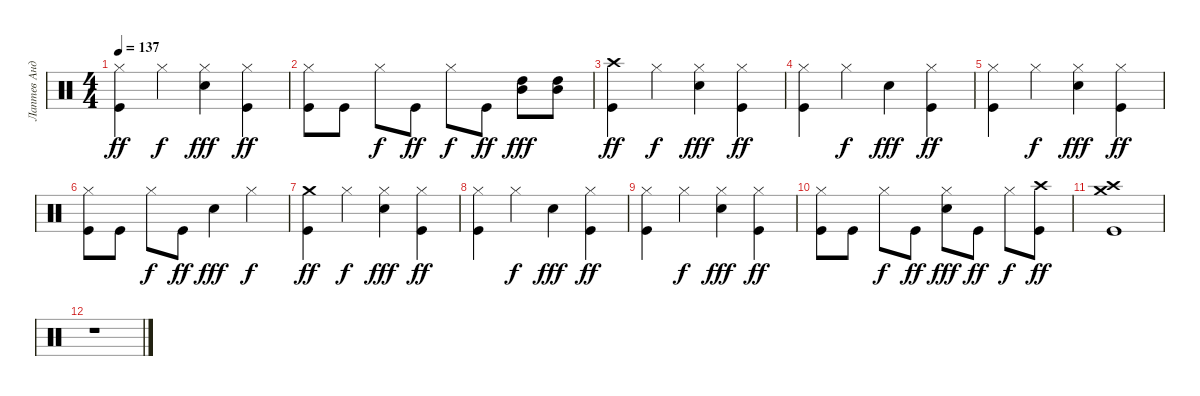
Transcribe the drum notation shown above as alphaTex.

\track ("Лаптев Андрей" "Лаптев Анд") {instrument percussion}
\staff {score}
\articulation defaults
\ts (4 4)
\tempo 137
\clef neutral
\ks c
("Hi-Hat (closed)" "Kick (hit)").4{dy ff} "Hi-Hat (closed)".4{dy f} ("Snare (hit) 2" "Hi-Hat (closed)").4{dy fff} ("Kick (hit)" "Hi-Hat (closed)").4{dy ff} |
("Kick (hit)" "Hi-Hat (closed)").8 "Kick (hit)".8 "Hi-Hat (closed)".8{dy f} "Kick (hit)".8{dy ff} "Hi-Hat (closed)".8{dy f} "Kick (hit)".8{dy ff} ("High Tom (hit)" "Mid Tom (hit)").8{dy fff} ("Mid Tom (hit)" "High Tom (hit)").8 |
("Crash high (hit)" "Kick (hit)").4{dy ff} "Hi-Hat (closed)".4{dy f} ("Snare (hit) 2" "Hi-Hat (closed)").4{dy fff} ("Kick (hit)" "Hi-Hat (closed)").4{dy ff} |
("Kick (hit)" "Hi-Hat (closed)").4 "Hi-Hat (closed)".4{dy f} "Snare (hit) 2".4{dy fff} ("Kick (hit)" "Hi-Hat (closed)").4{dy ff} |
("Kick (hit)" "Hi-Hat (closed)").4 "Hi-Hat (closed)".4{dy f} ("Snare (hit) 2" "Hi-Hat (closed)").4{dy fff} ("Kick (hit)" "Hi-Hat (closed)").4{dy ff} |
("Kick (hit)" "Hi-Hat (closed)").8 "Kick (hit)".8 "Hi-Hat (closed)".8{dy f} "Kick (hit)".8{dy ff} "Snare (hit) 2".4{dy fff} "Hi-Hat (closed)".4{dy f} |
("Crash medium (hit)" "Kick (hit)").4{dy ff} "Hi-Hat (closed)".4{dy f} ("Snare (hit) 2" "Hi-Hat (closed)").4{dy fff} ("Kick (hit)" "Hi-Hat (closed)").4{dy ff} |
("Kick (hit)" "Hi-Hat (closed)").4 "Hi-Hat (closed)".4{dy f} "Snare (hit) 2".4{dy fff} ("Kick (hit)" "Hi-Hat (closed)").4{dy ff} |
("Hi-Hat (closed)" "Kick (hit)").4 "Hi-Hat (closed)".4{dy f} ("Snare (hit) 2" "Hi-Hat (closed)").4{dy fff} ("Kick (hit)" "Hi-Hat (closed)").4{dy ff} |
("Kick (hit)" "Hi-Hat (closed)").8 "Kick (hit)".8 "Hi-Hat (closed)".8{dy f} "Kick (hit)".8{dy ff} ("Snare (hit) 2" "Hi-Hat (closed)").8{dy fff} "Kick (hit)".8{dy ff} "Hi-Hat (closed)".8{dy f} ("Crash high (hit)" "Kick (hit)").8{dy ff} |
("Crash high (hit)" "Crash medium (hit)" "Kick (hit)").1 |
r.1
